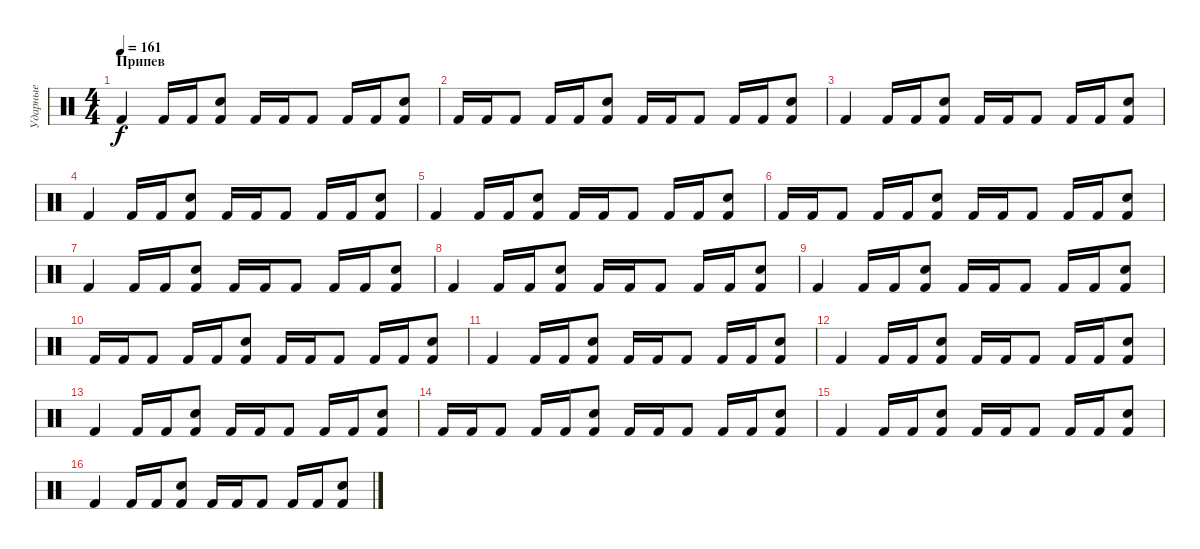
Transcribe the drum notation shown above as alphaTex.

\track ("Ударные" "Ударные") {instrument percussion}
\staff {score}
\articulation defaults
\ts (4 4)
\section ("" "Припев")
\tempo 161
\clef neutral
\ks c "Kick (hit) 2".4{dy f} "Kick (hit) 2".16 "Kick (hit) 2".16
("Snare (hit) 2" "Kick (hit) 2").8 "Kick (hit) 2".16 "Kick (hit) 2".16 "Kick (hit) 2".8 "Kick (hit) 2".16 "Kick (hit) 2".16 ("Snare (hit) 2" "Kick (hit) 2").8 |
"Kick (hit) 2".16 "Kick (hit) 2".16 "Kick (hit) 2".8 "Kick (hit) 2".16 "Kick (hit) 2".16 ("Snare (hit) 2" "Kick (hit) 2").8 "Kick (hit) 2".16 "Kick (hit) 2".16 "Kick (hit) 2".8 "Kick (hit) 2".16 "Kick (hit) 2".16 ("Snare (hit) 2" "Kick (hit) 2").8 |
"Kick (hit) 2".4 "Kick (hit) 2".16 "Kick (hit) 2".16 ("Snare (hit) 2" "Kick (hit) 2").8 "Kick (hit) 2".16 "Kick (hit) 2".16 "Kick (hit) 2".8 "Kick (hit) 2".16 "Kick (hit) 2".16 ("Snare (hit) 2" "Kick (hit) 2").8 |
"Kick (hit) 2".4 "Kick (hit) 2".16 "Kick (hit) 2".16 ("Snare (hit) 2" "Kick (hit) 2").8 "Kick (hit) 2".16 "Kick (hit) 2".16 "Kick (hit) 2".8 "Kick (hit) 2".16 "Kick (hit) 2".16 ("Snare (hit) 2" "Kick (hit) 2").8 |
"Kick (hit) 2".4 "Kick (hit) 2".16 "Kick (hit) 2".16 ("Snare (hit) 2" "Kick (hit) 2").8 "Kick (hit) 2".16 "Kick (hit) 2".16 "Kick (hit) 2".8 "Kick (hit) 2".16 "Kick (hit) 2".16 ("Snare (hit) 2" "Kick (hit) 2").8 |
"Kick (hit) 2".16 "Kick (hit) 2".16 "Kick (hit) 2".8 "Kick (hit) 2".16 "Kick (hit) 2".16 ("Snare (hit) 2" "Kick (hit) 2").8 "Kick (hit) 2".16 "Kick (hit) 2".16 "Kick (hit) 2".8 "Kick (hit) 2".16 "Kick (hit) 2".16 ("Snare (hit) 2" "Kick (hit) 2").8 |
"Kick (hit) 2".4 "Kick (hit) 2".16 "Kick (hit) 2".16 ("Snare (hit) 2" "Kick (hit) 2").8 "Kick (hit) 2".16 "Kick (hit) 2".16 "Kick (hit) 2".8 "Kick (hit) 2".16 "Kick (hit) 2".16 ("Snare (hit) 2" "Kick (hit) 2").8 |
"Kick (hit) 2".4 "Kick (hit) 2".16 "Kick (hit) 2".16 ("Snare (hit) 2" "Kick (hit) 2").8 "Kick (hit) 2".16 "Kick (hit) 2".16 "Kick (hit) 2".8 "Kick (hit) 2".16 "Kick (hit) 2".16 ("Snare (hit) 2" "Kick (hit) 2").8 |
"Kick (hit) 2".4 "Kick (hit) 2".16 "Kick (hit) 2".16 ("Snare (hit) 2" "Kick (hit) 2").8 "Kick (hit) 2".16 "Kick (hit) 2".16 "Kick (hit) 2".8 "Kick (hit) 2".16 "Kick (hit) 2".16 ("Snare (hit) 2" "Kick (hit) 2").8 |
"Kick (hit) 2".16 "Kick (hit) 2".16 "Kick (hit) 2".8 "Kick (hit) 2".16 "Kick (hit) 2".16 ("Snare (hit) 2" "Kick (hit) 2").8 "Kick (hit) 2".16 "Kick (hit) 2".16 "Kick (hit) 2".8 "Kick (hit) 2".16 "Kick (hit) 2".16 ("Snare (hit) 2" "Kick (hit) 2").8 |
"Kick (hit) 2".4 "Kick (hit) 2".16 "Kick (hit) 2".16 ("Snare (hit) 2" "Kick (hit) 2").8 "Kick (hit) 2".16 "Kick (hit) 2".16 "Kick (hit) 2".8 "Kick (hit) 2".16 "Kick (hit) 2".16 ("Snare (hit) 2" "Kick (hit) 2").8 |
"Kick (hit) 2".4 "Kick (hit) 2".16 "Kick (hit) 2".16 ("Snare (hit) 2" "Kick (hit) 2").8 "Kick (hit) 2".16 "Kick (hit) 2".16 "Kick (hit) 2".8 "Kick (hit) 2".16 "Kick (hit) 2".16 ("Snare (hit) 2" "Kick (hit) 2").8 |
"Kick (hit) 2".4 "Kick (hit) 2".16 "Kick (hit) 2".16 ("Snare (hit) 2" "Kick (hit) 2").8 "Kick (hit) 2".16 "Kick (hit) 2".16 "Kick (hit) 2".8 "Kick (hit) 2".16 "Kick (hit) 2".16 ("Snare (hit) 2" "Kick (hit) 2").8 |
"Kick (hit) 2".16 "Kick (hit) 2".16 "Kick (hit) 2".8 "Kick (hit) 2".16 "Kick (hit) 2".16 ("Snare (hit) 2" "Kick (hit) 2").8 "Kick (hit) 2".16 "Kick (hit) 2".16 "Kick (hit) 2".8 "Kick (hit) 2".16 "Kick (hit) 2".16 ("Snare (hit) 2" "Kick (hit) 2").8 |
"Kick (hit) 2".4 "Kick (hit) 2".16 "Kick (hit) 2".16 ("Snare (hit) 2" "Kick (hit) 2").8 "Kick (hit) 2".16 "Kick (hit) 2".16 "Kick (hit) 2".8 "Kick (hit) 2".16 "Kick (hit) 2".16 ("Snare (hit) 2" "Kick (hit) 2").8 |
"Kick (hit) 2".4 "Kick (hit) 2".16 "Kick (hit) 2".16 ("Snare (hit) 2" "Kick (hit) 2").8 "Kick (hit) 2".16 "Kick (hit) 2".16 "Kick (hit) 2".8 "Kick (hit) 2".16 "Kick (hit) 2".16 ("Snare (hit) 2" "Kick (hit) 2").8
